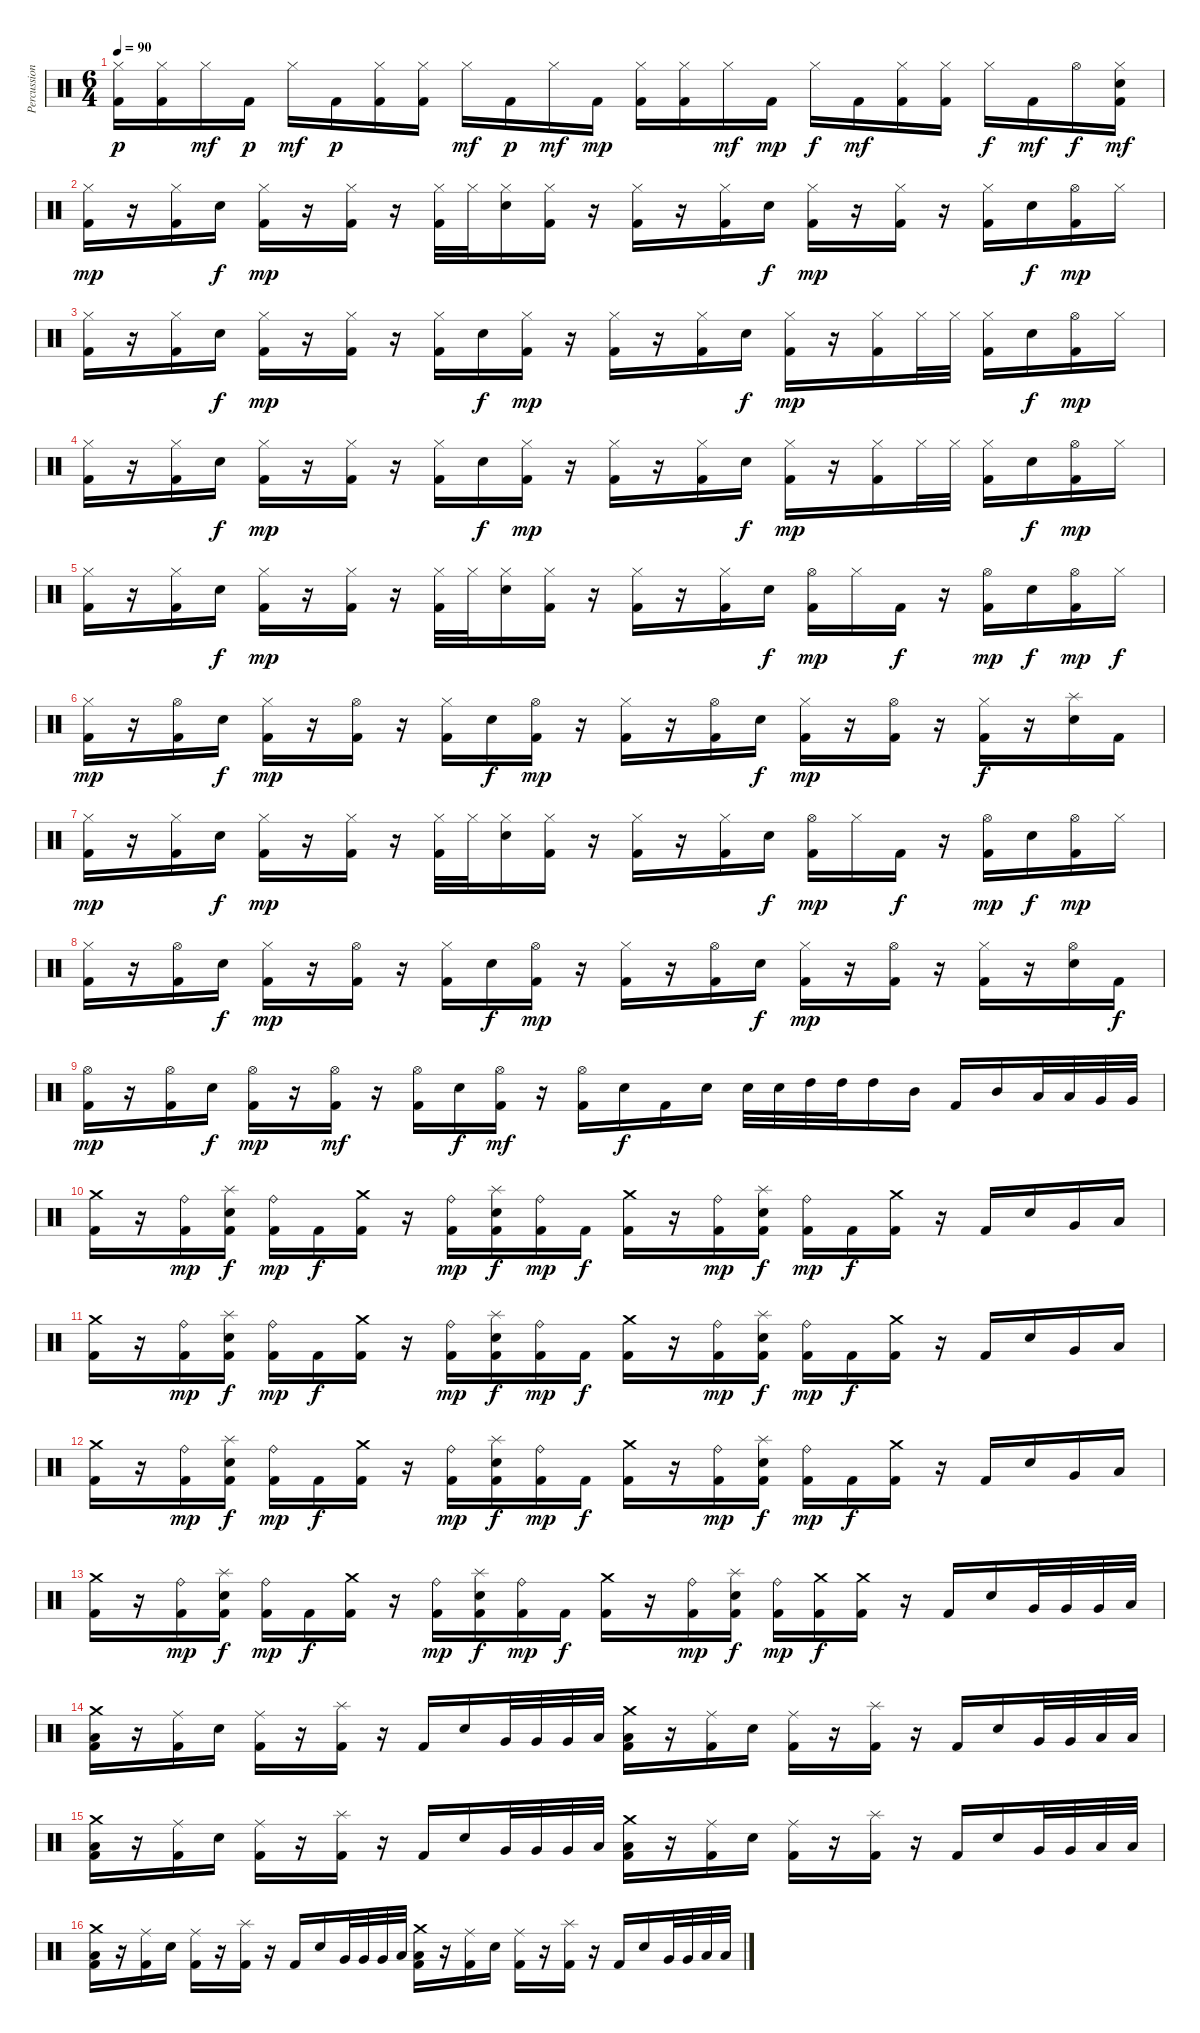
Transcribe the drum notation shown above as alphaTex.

\track ("Percussion" "Percussion") {instrument percussion}
\staff {score}
\articulation defaults
\ts (6 4)
\tempo 90
\clef neutral
\ks c
("Hi-Hat (closed)" "Kick (hit) 2").16{dy p} ("Hi-Hat (closed)" "Kick (hit) 2").16 "Hi-Hat (closed)".16{dy mf} "Kick (hit) 2".16{dy p} "Hi-Hat (closed)".16{dy mf} "Kick (hit) 2".16{dy p} ("Hi-Hat (closed)" "Kick (hit) 2").16 ("Hi-Hat (closed)" "Kick (hit) 2").16 "Hi-Hat (closed)".16{dy mf} "Kick (hit) 2".16{dy p} "Hi-Hat (closed)".16{dy mf} "Kick (hit) 2".16{dy mp} ("Hi-Hat (closed)" "Kick (hit) 2").16 ("Hi-Hat (closed)" "Kick (hit) 2").16 "Hi-Hat (closed)".16{dy mf} "Kick (hit) 2".16{dy mp} "Hi-Hat (closed)".16{dy f} "Kick (hit) 2".16{dy mf} ("Hi-Hat (closed)" "Kick (hit) 2").16 ("Hi-Hat (closed)" "Kick (hit) 2").16 "Hi-Hat (closed)".16{dy f} "Kick (hit) 2".16{dy mf} "Hi-Hat (open)".16{dy f} ("Hi-Hat (closed)" "Electric Snare (hit)" "Kick (hit) 2").16{dy mf} |
("Hi-Hat (closed)" "Kick (hit) 2").16{dy mp} r.16 ("Hi-Hat (closed)" "Kick (hit) 2").16 "Electric Snare (hit)".16{dy f} ("Hi-Hat (closed)" "Kick (hit) 2").16{dy mp} r.16 ("Hi-Hat (closed)" "Kick (hit) 2").16 r.16 ("Hi-Hat (closed)" "Kick (hit) 2").32 "Hi-Hat (closed)".32 ("Hi-Hat (closed)" "Electric Snare (hit)").16 ("Hi-Hat (closed)" "Kick (hit) 2").16 r.16 ("Hi-Hat (closed)" "Kick (hit) 2").16 r.16 ("Hi-Hat (closed)" "Kick (hit) 2").16 "Electric Snare (hit)".16{dy f} ("Hi-Hat (closed)" "Kick (hit) 2").16{dy mp} r.16 ("Hi-Hat (closed)" "Kick (hit) 2").16 r.16 ("Hi-Hat (closed)" "Kick (hit) 2").16 "Electric Snare (hit)".16{dy f} ("Hi-Hat (open)" "Kick (hit) 2").16{dy mp} "Hi-Hat (closed)".16 |
("Hi-Hat (closed)" "Kick (hit) 2").16 r.16 ("Hi-Hat (closed)" "Kick (hit) 2").16 "Electric Snare (hit)".16{dy f} ("Hi-Hat (closed)" "Kick (hit) 2").16{dy mp} r.16 ("Hi-Hat (closed)" "Kick (hit) 2").16 r.16 ("Hi-Hat (closed)" "Kick (hit) 2").16 "Electric Snare (hit)".16{dy f} ("Hi-Hat (closed)" "Kick (hit) 2").16{dy mp} r.16 ("Hi-Hat (closed)" "Kick (hit) 2").16 r.16 ("Hi-Hat (closed)" "Kick (hit) 2").16 "Electric Snare (hit)".16{dy f} ("Hi-Hat (closed)" "Kick (hit) 2").16{dy mp} r.16 ("Hi-Hat (closed)" "Kick (hit) 2").16 "Hi-Hat (closed)".32 "Hi-Hat (closed)".32 ("Hi-Hat (closed)" "Kick (hit) 2").16 "Electric Snare (hit)".16{dy f} ("Hi-Hat (open)" "Kick (hit) 2").16{dy mp} "Hi-Hat (closed)".16 |
("Hi-Hat (closed)" "Kick (hit) 2").16 r.16 ("Hi-Hat (closed)" "Kick (hit) 2").16 "Electric Snare (hit)".16{dy f} ("Hi-Hat (closed)" "Kick (hit) 2").16{dy mp} r.16 ("Hi-Hat (closed)" "Kick (hit) 2").16 r.16 ("Hi-Hat (closed)" "Kick (hit) 2").16 "Electric Snare (hit)".16{dy f} ("Hi-Hat (closed)" "Kick (hit) 2").16{dy mp} r.16 ("Hi-Hat (closed)" "Kick (hit) 2").16 r.16 ("Hi-Hat (closed)" "Kick (hit) 2").16 "Electric Snare (hit)".16{dy f} ("Hi-Hat (closed)" "Kick (hit) 2").16{dy mp} r.16 ("Hi-Hat (closed)" "Kick (hit) 2").16 "Hi-Hat (closed)".32 "Hi-Hat (closed)".32 ("Hi-Hat (closed)" "Kick (hit) 2").16 "Electric Snare (hit)".16{dy f} ("Hi-Hat (open)" "Kick (hit) 2").16{dy mp} "Hi-Hat (closed)".16 |
("Hi-Hat (closed)" "Kick (hit) 2").16 r.16 ("Hi-Hat (closed)" "Kick (hit) 2").16 "Electric Snare (hit)".16{dy f} ("Hi-Hat (closed)" "Kick (hit) 2").16{dy mp} r.16 ("Hi-Hat (closed)" "Kick (hit) 2").16 r.16 ("Hi-Hat (closed)" "Kick (hit) 2").32 "Hi-Hat (closed)".32 ("Hi-Hat (closed)" "Electric Snare (hit)").16 ("Hi-Hat (closed)" "Kick (hit) 2").16 r.16 ("Hi-Hat (closed)" "Kick (hit) 2").16 r.16 ("Hi-Hat (closed)" "Kick (hit) 2").16 "Electric Snare (hit)".16{dy f} ("Hi-Hat (open)" "Kick (hit) 2").16{dy mp} "Hi-Hat (closed)".16 "Kick (hit) 2".16{dy f} r.16 ("Hi-Hat (open)" "Kick (hit) 2").16{dy mp} "Electric Snare (hit)".16{dy f} ("Hi-Hat (open)" "Kick (hit) 2").16{dy mp} "Hi-Hat (closed)".16{dy f} |
("Hi-Hat (closed)" "Kick (hit) 2").16{dy mp} r.16 ("Hi-Hat (open)" "Kick (hit) 2").16 "Electric Snare (hit)".16{dy f} ("Hi-Hat (closed)" "Kick (hit) 2").16{dy mp} r.16 ("Hi-Hat (open)" "Kick (hit) 2").16 r.16 ("Hi-Hat (closed)" "Kick (hit) 2").16 "Electric Snare (hit)".16{dy f} ("Hi-Hat (open)" "Kick (hit) 2").16{dy mp} r.16 ("Hi-Hat (closed)" "Kick (hit) 2").16 r.16 ("Hi-Hat (open)" "Kick (hit) 2").16 "Electric Snare (hit)".16{dy f} ("Hi-Hat (closed)" "Kick (hit) 2").16{dy mp} r.16 ("Hi-Hat (open)" "Kick (hit) 2").16 r.16 ("Hi-Hat (closed)" "Kick (hit) 2").16{dy f} r.16 ("Splash (hit)" "Electric Snare (hit)").16 "Kick (hit) 2".16 |
("Hi-Hat (closed)" "Kick (hit) 2").16{dy mp} r.16 ("Hi-Hat (closed)" "Kick (hit) 2").16 "Electric Snare (hit)".16{dy f} ("Hi-Hat (closed)" "Kick (hit) 2").16{dy mp} r.16 ("Hi-Hat (closed)" "Kick (hit) 2").16 r.16 ("Hi-Hat (closed)" "Kick (hit) 2").32 "Hi-Hat (closed)".32 ("Hi-Hat (closed)" "Electric Snare (hit)").16 ("Hi-Hat (closed)" "Kick (hit) 2").16 r.16 ("Hi-Hat (closed)" "Kick (hit) 2").16 r.16 ("Hi-Hat (closed)" "Kick (hit) 2").16 "Electric Snare (hit)".16{dy f} ("Hi-Hat (open)" "Kick (hit) 2").16{dy mp} "Hi-Hat (closed)".16 "Kick (hit) 2".16{dy f} r.16 ("Hi-Hat (open)" "Kick (hit) 2").16{dy mp} "Electric Snare (hit)".16{dy f} ("Hi-Hat (open)" "Kick (hit) 2").16{dy mp} "Hi-Hat (closed)".16 |
("Hi-Hat (closed)" "Kick (hit) 2").16 r.16 ("Hi-Hat (open)" "Kick (hit) 2").16 "Electric Snare (hit)".16{dy f} ("Hi-Hat (closed)" "Kick (hit) 2").16{dy mp} r.16 ("Hi-Hat (open)" "Kick (hit) 2").16 r.16 ("Hi-Hat (closed)" "Kick (hit) 2").16 "Electric Snare (hit)".16{dy f} ("Hi-Hat (open)" "Kick (hit) 2").16{dy mp} r.16 ("Hi-Hat (closed)" "Kick (hit) 2").16 r.16 ("Hi-Hat (open)" "Kick (hit) 2").16 "Electric Snare (hit)".16{dy f} ("Hi-Hat (closed)" "Kick (hit) 2").16{dy mp} r.16 ("Hi-Hat (open)" "Kick (hit) 2").16 r.16 ("Hi-Hat (closed)" "Kick (hit) 2").16 r.16 ("Hi-Hat (open)" "Electric Snare (hit)").16 "Kick (hit) 2".16{dy f} |
("Hi-Hat (open)" "Kick (hit) 2").16{dy mp} r.16 ("Hi-Hat (open)" "Kick (hit) 2").16 "Electric Snare (hit)".16{dy f} ("Hi-Hat (open)" "Kick (hit) 2").16{dy mp} r.16 ("Hi-Hat (open)" "Kick (hit) 2").16{dy mf} r.16 ("Hi-Hat (open)" "Kick (hit) 2").16 "Electric Snare (hit)".16{dy f} ("Hi-Hat (open)" "Kick (hit) 2").16{dy mf} r.16 ("Hi-Hat (open)" "Kick (hit) 2").16 "Electric Snare (hit)".16{dy f} "Kick (hit) 2".16 "Electric Snare (hit)".16 "Electric Snare (hit)".32 "Electric Snare (hit)".32 "High Tom (hit)".32 "High Tom (hit)".32 "High Tom (hit)".16 "Mid Tom (hit)".16 "Kick (hit) 2".16 "Mid Tom (hit)".16 "Low Tom (hit)".32 "Low Tom (hit)".32 "Very Low Tom (hit)".32 "Very Low Tom (hit)".32 |
("Crash medium (hit)" "Kick (hit) 2").16 r.16 ("Ride (bell)" "Kick (hit) 2").16{dy mp} ("Splash (hit)" "Electric Snare (hit)" "Kick (hit) 2").16{dy f} ("Ride (bell)" "Kick (hit) 2").16{dy mp} "Kick (hit) 2".16{dy f} ("Crash medium (hit)" "Kick (hit) 2").16 r.16 ("Ride (bell)" "Kick (hit) 2").16{dy mp} ("Splash (hit)" "Electric Snare (hit)" "Kick (hit) 2").16{dy f} ("Ride (bell)" "Kick (hit) 2").16{dy mp} "Kick (hit) 2".16{dy f} ("Crash medium (hit)" "Kick (hit) 2").16 r.16 ("Ride (bell)" "Kick (hit) 2").16{dy mp} ("Splash (hit)" "Electric Snare (hit)" "Kick (hit) 2").16{dy f} ("Ride (bell)" "Kick (hit) 2").16{dy mp} "Kick (hit) 2".16{dy f} ("Crash medium (hit)" "Kick (hit) 2").16 r.16 "Kick (hit) 2".16 "Electric Snare (hit)".16 "Very Low Tom (hit)".16 "Low Floor Tom (hit)".16 |
("Crash medium (hit)" "Kick (hit) 2").16 r.16 ("Ride (bell)" "Kick (hit) 2").16{dy mp} ("Splash (hit)" "Electric Snare (hit)" "Kick (hit) 2").16{dy f} ("Ride (bell)" "Kick (hit) 2").16{dy mp} "Kick (hit) 2".16{dy f} ("Crash medium (hit)" "Kick (hit) 2").16 r.16 ("Ride (bell)" "Kick (hit) 2").16{dy mp} ("Splash (hit)" "Electric Snare (hit)" "Kick (hit) 2").16{dy f} ("Ride (bell)" "Kick (hit) 2").16{dy mp} "Kick (hit) 2".16{dy f} ("Crash medium (hit)" "Kick (hit) 2").16 r.16 ("Ride (bell)" "Kick (hit) 2").16{dy mp} ("Splash (hit)" "Electric Snare (hit)" "Kick (hit) 2").16{dy f} ("Ride (bell)" "Kick (hit) 2").16{dy mp} "Kick (hit) 2".16{dy f} ("Crash medium (hit)" "Kick (hit) 2").16 r.16 "Kick (hit) 2".16 "Electric Snare (hit)".16 "Very Low Tom (hit)".16 "Low Floor Tom (hit)".16 |
("Crash medium (hit)" "Kick (hit) 2").16 r.16 ("Ride (bell)" "Kick (hit) 2").16{dy mp} ("Splash (hit)" "Electric Snare (hit)" "Kick (hit) 2").16{dy f} ("Ride (bell)" "Kick (hit) 2").16{dy mp} "Kick (hit) 2".16{dy f} ("Crash medium (hit)" "Kick (hit) 2").16 r.16 ("Ride (bell)" "Kick (hit) 2").16{dy mp} ("Splash (hit)" "Electric Snare (hit)" "Kick (hit) 2").16{dy f} ("Ride (bell)" "Kick (hit) 2").16{dy mp} "Kick (hit) 2".16{dy f} ("Crash medium (hit)" "Kick (hit) 2").16 r.16 ("Ride (bell)" "Kick (hit) 2").16{dy mp} ("Splash (hit)" "Electric Snare (hit)" "Kick (hit) 2").16{dy f} ("Ride (bell)" "Kick (hit) 2").16{dy mp} "Kick (hit) 2".16{dy f} ("Crash medium (hit)" "Kick (hit) 2").16 r.16 "Kick (hit) 2".16 "Electric Snare (hit)".16 "Very Low Tom (hit)".16 "Low Floor Tom (hit)".16 |
("Crash medium (hit)" "Kick (hit) 2").16 r.16 ("Ride (bell)" "Kick (hit) 2").16{dy mp} ("Splash (hit)" "Electric Snare (hit)" "Kick (hit) 2").16{dy f} ("Ride (bell)" "Kick (hit) 2").16{dy mp} "Kick (hit) 2".16{dy f} ("Crash medium (hit)" "Kick (hit) 2").16 r.16 ("Ride (bell)" "Kick (hit) 2").16{dy mp} ("Splash (hit)" "Electric Snare (hit)" "Kick (hit) 2").16{dy f} ("Ride (bell)" "Kick (hit) 2").16{dy mp} "Kick (hit) 2".16{dy f} ("Crash medium (hit)" "Kick (hit) 2").16 r.16 ("Ride (bell)" "Kick (hit) 2").16{dy mp} ("Splash (hit)" "Electric Snare (hit)" "Kick (hit) 2").16{dy f} ("Ride (bell)" "Kick (hit) 2").16{dy mp} ("Crash medium (hit)" "Kick (hit) 2").16{dy f} ("Crash medium (hit)" "Kick (hit) 2").16 r.16 "Kick (hit) 2".16 "Electric Snare (hit)".16 "Very Low Tom (hit)".32 "Very Low Tom (hit)".32 "Very Low Tom (hit)".32 "Low Floor Tom (hit)".32 |
("Crash medium (hit)" "Low Floor Tom (hit)" "Kick (hit) 2").16 r.16 ("Ride (middle)" "Kick (hit) 2").16 "Electric Snare (hit)".16 ("Ride (middle)" "Kick (hit) 2").16 r.16 ("Splash (hit)" "Kick (hit) 2").16 r.16 "Kick (hit) 2".16 "Electric Snare (hit)".16 "Very Low Tom (hit)".32 "Very Low Tom (hit)".32 "Very Low Tom (hit)".32 "Low Floor Tom (hit)".32 ("Crash medium (hit)" "Low Floor Tom (hit)" "Kick (hit) 2").16 r.16 ("Ride (middle)" "Kick (hit) 2").16 "Electric Snare (hit)".16 ("Ride (middle)" "Kick (hit) 2").16 r.16 ("Splash (hit)" "Kick (hit) 2").16 r.16 "Kick (hit) 2".16 "Electric Snare (hit)".16 "Very Low Tom (hit)".32 "Very Low Tom (hit)".32 "Low Floor Tom (hit)".32 "Low Floor Tom (hit)".32 |
("Crash medium (hit)" "Low Floor Tom (hit)" "Kick (hit) 2").16 r.16 ("Ride (middle)" "Kick (hit) 2").16 "Electric Snare (hit)".16 ("Ride (middle)" "Kick (hit) 2").16 r.16 ("Splash (hit)" "Kick (hit) 2").16 r.16 "Kick (hit) 2".16 "Electric Snare (hit)".16 "Very Low Tom (hit)".32 "Very Low Tom (hit)".32 "Very Low Tom (hit)".32 "Low Floor Tom (hit)".32 ("Crash medium (hit)" "Low Floor Tom (hit)" "Kick (hit) 2").16 r.16 ("Ride (middle)" "Kick (hit) 2").16 "Electric Snare (hit)".16 ("Ride (middle)" "Kick (hit) 2").16 r.16 ("Splash (hit)" "Kick (hit) 2").16 r.16 "Kick (hit) 2".16 "Electric Snare (hit)".16 "Very Low Tom (hit)".32 "Very Low Tom (hit)".32 "Low Floor Tom (hit)".32 "Low Floor Tom (hit)".32 |
("Crash medium (hit)" "Low Floor Tom (hit)" "Kick (hit) 2").16 r.16 ("Ride (middle)" "Kick (hit) 2").16 "Electric Snare (hit)".16 ("Ride (middle)" "Kick (hit) 2").16 r.16 ("Splash (hit)" "Kick (hit) 2").16 r.16 "Kick (hit) 2".16 "Electric Snare (hit)".16 "Very Low Tom (hit)".32 "Very Low Tom (hit)".32 "Very Low Tom (hit)".32 "Low Floor Tom (hit)".32 ("Crash medium (hit)" "Low Floor Tom (hit)" "Kick (hit) 2").16 r.16 ("Ride (middle)" "Kick (hit) 2").16 "Electric Snare (hit)".16 ("Ride (middle)" "Kick (hit) 2").16 r.16 ("Splash (hit)" "Kick (hit) 2").16 r.16 "Kick (hit) 2".16 "Electric Snare (hit)".16 "Very Low Tom (hit)".32 "Very Low Tom (hit)".32 "Low Floor Tom (hit)".32 "Low Floor Tom (hit)".32
